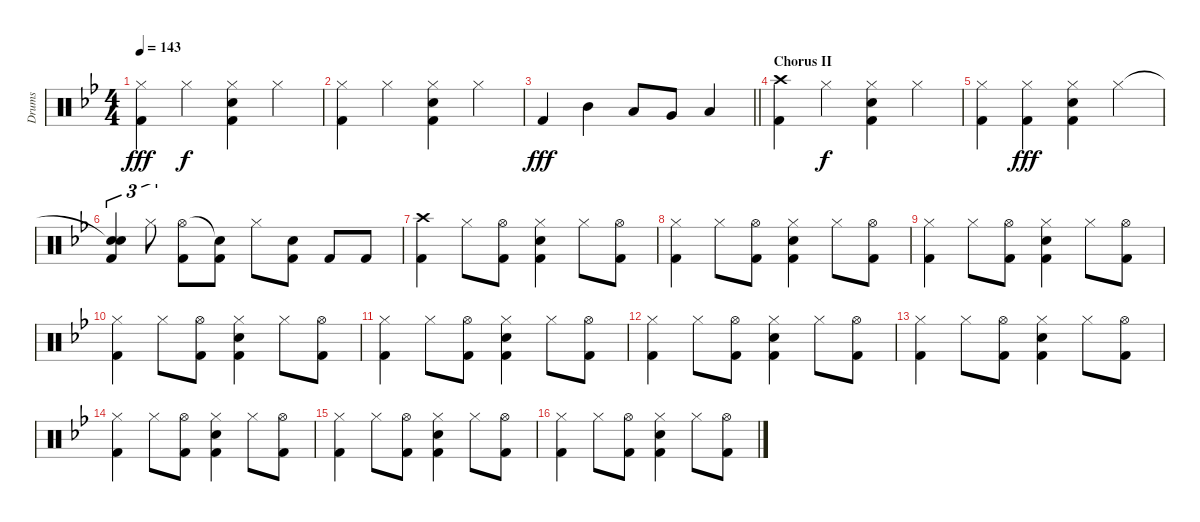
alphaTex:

\track ("Drums" "Drums") {instrument percussion}
\staff {score}
\articulation defaults
\ts (4 4)
\tempo 143
\clef neutral
\ks bb
("Hi-Hat (closed)" "Kick (hit) 2").4{dy fff} "Hi-Hat (closed)".4{dy f} ("Hi-Hat (closed)" "Snare (hit) 2" "Kick (hit) 2").4 "Hi-Hat (closed)".4 |
("Hi-Hat (closed)" "Kick (hit) 2").4 "Hi-Hat (closed)".4 ("Hi-Hat (closed)" "Snare (hit) 2" "Kick (hit) 2").4 "Hi-Hat (closed)".4 |
\barLineRight lightlight "Kick (hit) 2".4{dy fff} "Mid Tom (hit)".4 "Low Tom (hit)".8 "Very Low Tom (hit)".8 "Low Floor Tom (hit)".4
|
\section ("" "Chorus II")
("Crash high (hit)" "Kick (hit) 2").4 "Hi-Hat (closed)".4{dy f} ("Hi-Hat (closed)" "Snare (hit) 2" "Kick (hit) 2").4 "Hi-Hat (closed)".4 |
("Hi-Hat (closed)" "Kick (hit) 2").4 ("Hi-Hat (closed)" "Kick (hit) 2").4{dy fff} ("Hi-Hat (closed)" "Snare (hit) 2" "Kick (hit) 2").4 "Hi-Hat (closed)".4 |
("Snare (hit)"{t} "Snare (hit) 2" "Kick (hit) 2").4{tu (3 2)} "Hi-Hat (closed)".8{tu (3 2)} ("Hi-Hat (open)" "Kick (hit) 2").8 ("Snare (hit)"{t} "Kick (hit) 2").8 "Hi-Hat (closed)".8 ("Snare (hit) 2" "Kick (hit) 2").8 "Kick (hit) 2".8 "Kick (hit) 2".8 |
("Crash high (hit)" "Kick (hit) 2").4 "Hi-Hat (closed)".8 ("Hi-Hat (open)" "Kick (hit) 2").8 ("Hi-Hat (closed)" "Snare (hit) 2" "Kick (hit) 2").4 "Hi-Hat (closed)".8 ("Hi-Hat (open)" "Kick (hit) 2").8 |
("Hi-Hat (closed)" "Kick (hit) 2").4 "Hi-Hat (closed)".8 ("Hi-Hat (open)" "Kick (hit) 2").8 ("Hi-Hat (closed)" "Snare (hit) 2" "Kick (hit) 2").4 "Hi-Hat (closed)".8 ("Hi-Hat (open)" "Kick (hit) 2").8 |
("Hi-Hat (closed)" "Kick (hit) 2").4 "Hi-Hat (closed)".8 ("Hi-Hat (open)" "Kick (hit) 2").8 ("Hi-Hat (closed)" "Snare (hit) 2" "Kick (hit) 2").4 "Hi-Hat (closed)".8 ("Hi-Hat (open)" "Kick (hit) 2").8 |
("Hi-Hat (closed)" "Kick (hit) 2").4 "Hi-Hat (closed)".8 ("Hi-Hat (open)" "Kick (hit) 2").8 ("Hi-Hat (closed)" "Snare (hit) 2" "Kick (hit) 2").4 "Hi-Hat (closed)".8 ("Hi-Hat (open)" "Kick (hit) 2").8 |
("Hi-Hat (closed)" "Kick (hit) 2").4 "Hi-Hat (closed)".8 ("Hi-Hat (open)" "Kick (hit) 2").8 ("Hi-Hat (closed)" "Snare (hit) 2" "Kick (hit) 2").4 "Hi-Hat (closed)".8 ("Hi-Hat (open)" "Kick (hit) 2").8 |
("Hi-Hat (closed)" "Kick (hit) 2").4 "Hi-Hat (closed)".8 ("Hi-Hat (open)" "Kick (hit) 2").8 ("Hi-Hat (closed)" "Snare (hit) 2" "Kick (hit) 2").4 "Hi-Hat (closed)".8 ("Hi-Hat (open)" "Kick (hit) 2").8 |
("Hi-Hat (closed)" "Kick (hit) 2").4 "Hi-Hat (closed)".8 ("Hi-Hat (open)" "Kick (hit) 2").8 ("Hi-Hat (closed)" "Snare (hit) 2" "Kick (hit) 2").4 "Hi-Hat (closed)".8 ("Hi-Hat (open)" "Kick (hit) 2").8 |
("Hi-Hat (closed)" "Kick (hit) 2").4 "Hi-Hat (closed)".8 ("Hi-Hat (open)" "Kick (hit) 2").8 ("Hi-Hat (closed)" "Snare (hit) 2" "Kick (hit) 2").4 "Hi-Hat (closed)".8 ("Hi-Hat (open)" "Kick (hit) 2").8 |
("Hi-Hat (closed)" "Kick (hit) 2").4 "Hi-Hat (closed)".8 ("Hi-Hat (open)" "Kick (hit) 2").8 ("Hi-Hat (closed)" "Snare (hit) 2" "Kick (hit) 2").4 "Hi-Hat (closed)".8 ("Hi-Hat (open)" "Kick (hit) 2").8 |
("Hi-Hat (closed)" "Kick (hit) 2").4 "Hi-Hat (closed)".8 ("Hi-Hat (open)" "Kick (hit) 2").8 ("Hi-Hat (closed)" "Snare (hit) 2" "Kick (hit) 2").4 "Hi-Hat (closed)".8 ("Hi-Hat (open)" "Kick (hit) 2").8
